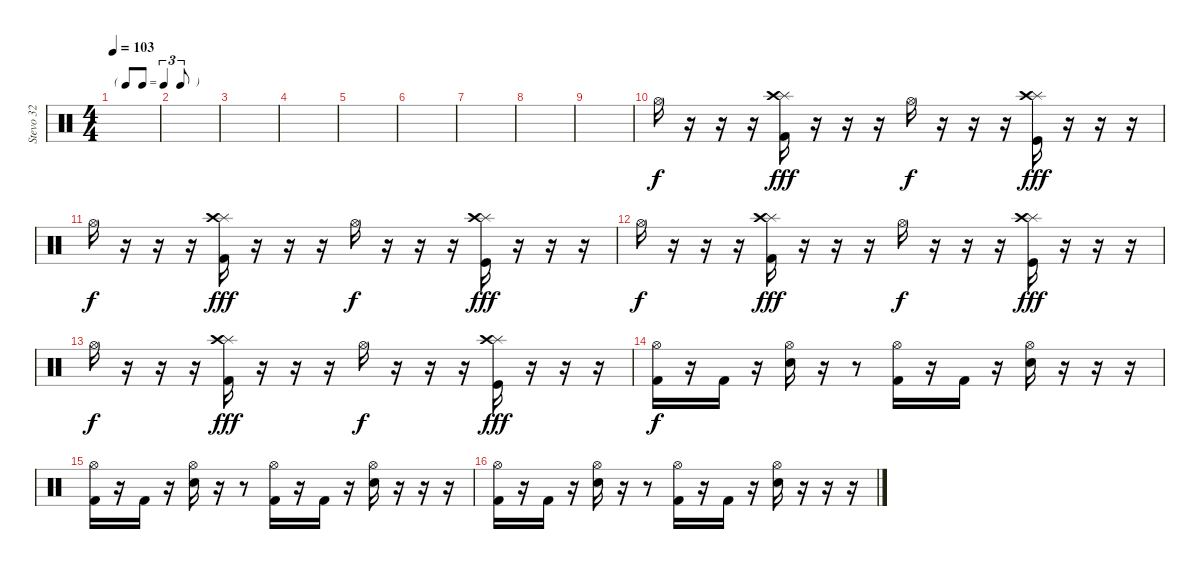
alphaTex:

\track ("Stevo 32" "Stevo 32") {instrument percussion}
\staff {score}
\articulation defaults
\ts (4 4)
\tf triplet8th
\tempo 103
\clef neutral
\ks c
|
|
|
|
|
|
|
|
|
"Hi-Hat (open)".16 r.16 r.16 r.16 ("Splash (hit)" "Crash high (hit)" "Kick (hit) 2").16{dy fff} r.16 r.16 r.16 "Hi-Hat (open)".16{dy f} r.16 r.16 r.16 ("Splash (hit)" "Crash high (hit)" "Kick (hit)").16{dy fff} r.16 r.16 r.16 |
"Hi-Hat (open)".16{dy f} r.16 r.16 r.16 ("Splash (hit)" "Crash high (hit)" "Kick (hit) 2").16{dy fff} r.16 r.16 r.16 "Hi-Hat (open)".16{dy f} r.16 r.16 r.16 ("Splash (hit)" "Crash high (hit)" "Kick (hit)").16{dy fff} r.16 r.16 r.16 |
"Hi-Hat (open)".16{dy f} r.16 r.16 r.16 ("Splash (hit)" "Crash high (hit)" "Kick (hit) 2").16{dy fff} r.16 r.16 r.16 "Hi-Hat (open)".16{dy f} r.16 r.16 r.16 ("Splash (hit)" "Crash high (hit)" "Kick (hit)").16{dy fff} r.16 r.16 r.16 |
"Hi-Hat (open)".16{dy f} r.16 r.16 r.16 ("Splash (hit)" "Crash high (hit)" "Kick (hit) 2").16{dy fff} r.16 r.16 r.16 "Hi-Hat (open)".16{dy f} r.16 r.16 r.16 ("Splash (hit)" "Crash high (hit)" "Kick (hit)").16{dy fff} r.16 r.16 r.16 |
("Hi-Hat (open)" "Kick (hit) 2").16{dy f} r.16 "Kick (hit) 2".16 r.16 ("Hi-Hat (open)" "Electric Snare (hit)").16 r.16 r.8 ("Hi-Hat (open)" "Kick (hit) 2").16 r.16 "Kick (hit) 2".16 r.16 ("Hi-Hat (open)" "Electric Snare (hit)").16 r.16 r.16 r.16 |
("Hi-Hat (open)" "Kick (hit) 2").16 r.16 "Kick (hit) 2".16 r.16 ("Hi-Hat (open)" "Electric Snare (hit)").16 r.16 r.8 ("Hi-Hat (open)" "Kick (hit) 2").16 r.16 "Kick (hit) 2".16 r.16 ("Hi-Hat (open)" "Electric Snare (hit)").16 r.16 r.16 r.16 |
("Hi-Hat (open)" "Kick (hit) 2").16 r.16 "Kick (hit) 2".16 r.16 ("Hi-Hat (open)" "Electric Snare (hit)").16 r.16 r.8 ("Hi-Hat (open)" "Kick (hit) 2").16 r.16 "Kick (hit) 2".16 r.16 ("Hi-Hat (open)" "Electric Snare (hit)").16 r.16 r.16 r.16
